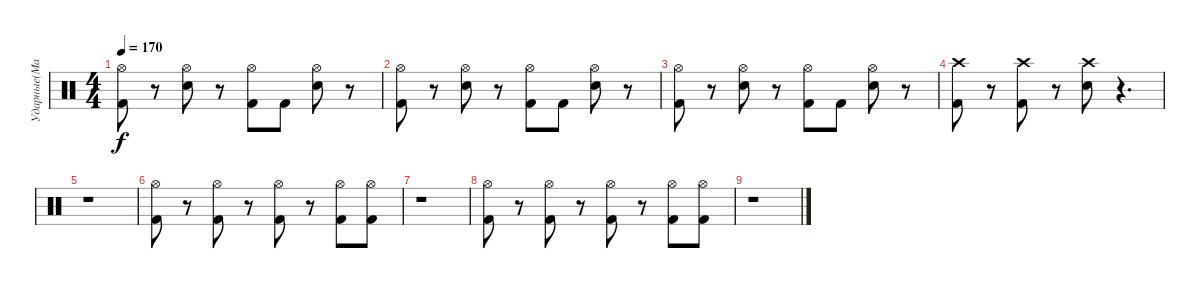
\track ("Ударные(Май)" "Ударные(Ма") {instrument percussion}
\staff {score}
\articulation defaults
\ts (4 4)
\tempo 170
\clef neutral
\ks c
("Hi-Hat (open)" "Kick (hit) 2").8{dy f} r.8 ("Electric Snare (hit)" "Hi-Hat (open)").8 r.8 ("Kick (hit) 2" "Hi-Hat (open)").8 "Kick (hit) 2".8 ("Electric Snare (hit)" "Hi-Hat (open)").8 r.8 |
("Hi-Hat (open)" "Kick (hit) 2").8 r.8 ("Electric Snare (hit)" "Hi-Hat (open)").8 r.8 ("Kick (hit) 2" "Hi-Hat (open)").8 "Kick (hit) 2".8 ("Electric Snare (hit)" "Hi-Hat (open)").8 r.8 |
("Kick (hit) 2" "Hi-Hat (open)").8 r.8 ("Electric Snare (hit)" "Hi-Hat (open)").8 r.8 ("Kick (hit) 2" "Hi-Hat (open)").8 "Kick (hit) 2".8 ("Electric Snare (hit)" "Hi-Hat (open)").8 r.8 |
("Crash high (hit)" "Kick (hit) 2").8 r.8 ("Crash high (hit)" "Kick (hit) 2").8 r.8 ("Crash high (hit)" "Snare (hit) 2").8 r.4{d} |
r.1 |
("Hi-Hat (open)" "Kick (hit) 2").8 r.8 ("Hi-Hat (open)" "Kick (hit) 2").8 r.8 ("Hi-Hat (open)" "Kick (hit) 2").8 r.8 ("Kick (hit) 2" "Hi-Hat (open)").8 ("Kick (hit) 2" "Hi-Hat (open)").8 |
r.1 |
("Hi-Hat (open)" "Kick (hit) 2").8 r.8 ("Hi-Hat (open)" "Kick (hit) 2").8 r.8 ("Hi-Hat (open)" "Kick (hit) 2").8 r.8 ("Kick (hit) 2" "Hi-Hat (open)").8 ("Kick (hit) 2" "Hi-Hat (open)").8 |
r.1
